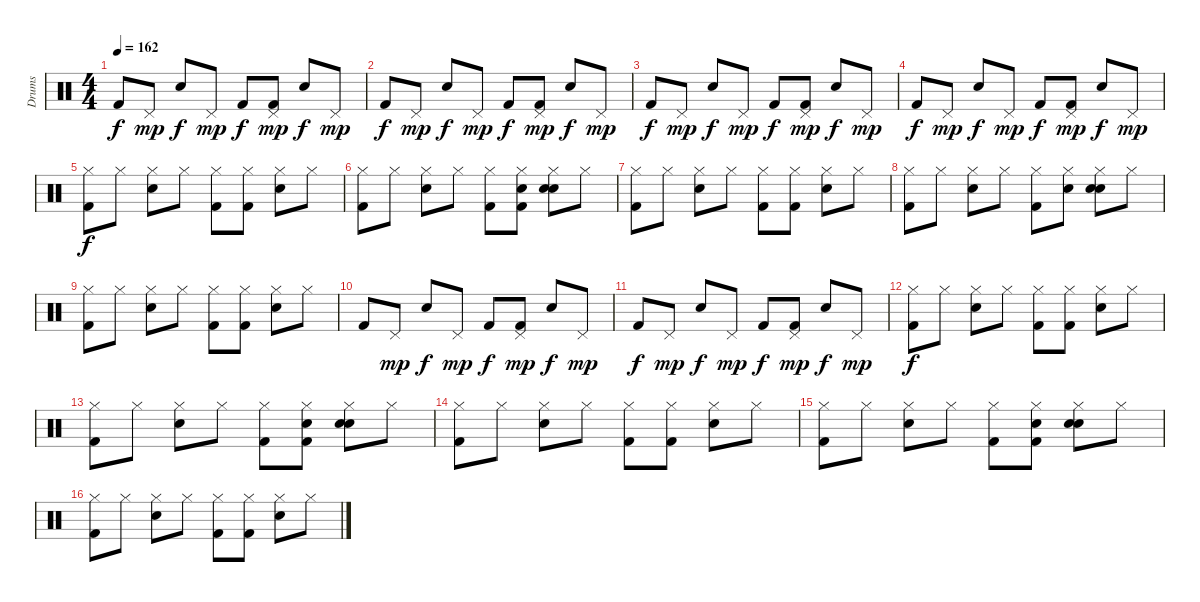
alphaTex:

\track ("Drums" "Drums") {instrument percussion}
\staff {score}
\articulation defaults
\ts (4 4)
\tempo 162
\clef neutral
\ks c "Kick (hit) 2".8{dy f} "Pedal Hi-Hat (hit)".8{dy mp} "Snare (hit) 2".8{dy f} "Pedal Hi-Hat (hit)".8{dy mp} "Kick (hit) 2".8{dy f}
("Pedal Hi-Hat (hit)" "Kick (hit) 2").8{dy mp} "Snare (hit) 2".8{dy f} "Pedal Hi-Hat (hit)".8{dy mp} |
"Kick (hit) 2".8{dy f} "Pedal Hi-Hat (hit)".8{dy mp} "Snare (hit) 2".8{dy f} "Pedal Hi-Hat (hit)".8{dy mp} "Kick (hit) 2".8{dy f} ("Pedal Hi-Hat (hit)" "Kick (hit) 2").8{dy mp} "Snare (hit) 2".8{dy f} "Pedal Hi-Hat (hit)".8{dy mp} |
"Kick (hit) 2".8{dy f} "Pedal Hi-Hat (hit)".8{dy mp} "Snare (hit) 2".8{dy f} "Pedal Hi-Hat (hit)".8{dy mp} "Kick (hit) 2".8{dy f} ("Pedal Hi-Hat (hit)" "Kick (hit) 2").8{dy mp} "Snare (hit) 2".8{dy f} "Pedal Hi-Hat (hit)".8{dy mp} |
"Kick (hit) 2".8{dy f} "Pedal Hi-Hat (hit)".8{dy mp} "Snare (hit) 2".8{dy f} "Pedal Hi-Hat (hit)".8{dy mp} "Kick (hit) 2".8{dy f} ("Pedal Hi-Hat (hit)" "Kick (hit) 2").8{dy mp} "Snare (hit) 2".8{dy f} "Pedal Hi-Hat (hit)".8{dy mp} |
("Hi-Hat (closed)" "Kick (hit) 2").8{dy f} "Hi-Hat (closed)".8 ("Hi-Hat (closed)" "Snare (hit) 2").8 "Hi-Hat (closed)".8 ("Hi-Hat (closed)" "Kick (hit) 2").8 ("Hi-Hat (closed)" "Kick (hit) 2").8 ("Hi-Hat (closed)" "Snare (hit) 2").8 "Hi-Hat (closed)".8 |
("Hi-Hat (closed)" "Kick (hit) 2").8 "Hi-Hat (closed)".8 ("Hi-Hat (closed)" "Snare (hit) 2").8 "Hi-Hat (closed)".8 ("Hi-Hat (closed)" "Kick (hit) 2").8 ("Hi-Hat (closed)" "Hand Clap (hit)" "Kick (hit) 2").8 ("Hi-Hat (closed)" "Snare (hit) 2" "Hand Clap (hit)").8 "Hi-Hat (closed)".8 |
("Hi-Hat (closed)" "Kick (hit) 2").8 "Hi-Hat (closed)".8 ("Hi-Hat (closed)" "Snare (hit) 2").8 "Hi-Hat (closed)".8 ("Hi-Hat (closed)" "Kick (hit) 2").8 ("Hi-Hat (closed)" "Kick (hit) 2").8 ("Hi-Hat (closed)" "Snare (hit) 2").8 "Hi-Hat (closed)".8 |
("Hi-Hat (closed)" "Kick (hit) 2").8 "Hi-Hat (closed)".8 ("Hi-Hat (closed)" "Snare (hit) 2").8 "Hi-Hat (closed)".8 ("Hi-Hat (closed)" "Kick (hit) 2").8 ("Hi-Hat (closed)" "Hand Clap (hit)").8 ("Hi-Hat (closed)" "Snare (hit) 2" "Hand Clap (hit)").8 "Hi-Hat (closed)".8 |
("Hi-Hat (closed)" "Kick (hit) 2").8 "Hi-Hat (closed)".8 ("Hi-Hat (closed)" "Snare (hit) 2").8 "Hi-Hat (closed)".8 ("Hi-Hat (closed)" "Kick (hit) 2").8 ("Hi-Hat (closed)" "Kick (hit) 2").8 ("Hi-Hat (closed)" "Snare (hit) 2").8 "Hi-Hat (closed)".8 |
"Kick (hit) 2".8 "Pedal Hi-Hat (hit)".8{dy mp} "Snare (hit) 2".8{dy f} "Pedal Hi-Hat (hit)".8{dy mp} "Kick (hit) 2".8{dy f} ("Pedal Hi-Hat (hit)" "Kick (hit) 2").8{dy mp} "Snare (hit) 2".8{dy f} "Pedal Hi-Hat (hit)".8{dy mp} |
"Kick (hit) 2".8{dy f} "Pedal Hi-Hat (hit)".8{dy mp} "Snare (hit) 2".8{dy f} "Pedal Hi-Hat (hit)".8{dy mp} "Kick (hit) 2".8{dy f} ("Pedal Hi-Hat (hit)" "Kick (hit) 2").8{dy mp} "Snare (hit) 2".8{dy f} "Pedal Hi-Hat (hit)".8{dy mp} |
("Hi-Hat (closed)" "Kick (hit) 2").8{dy f} "Hi-Hat (closed)".8 ("Hi-Hat (closed)" "Snare (hit) 2").8 "Hi-Hat (closed)".8 ("Hi-Hat (closed)" "Kick (hit) 2").8 ("Hi-Hat (closed)" "Kick (hit) 2").8 ("Hi-Hat (closed)" "Snare (hit) 2").8 "Hi-Hat (closed)".8 |
("Hi-Hat (closed)" "Kick (hit) 2").8 "Hi-Hat (closed)".8 ("Hi-Hat (closed)" "Snare (hit) 2").8 "Hi-Hat (closed)".8 ("Hi-Hat (closed)" "Kick (hit) 2").8 ("Hi-Hat (closed)" "Hand Clap (hit)" "Kick (hit) 2").8 ("Hi-Hat (closed)" "Snare (hit) 2" "Hand Clap (hit)").8 "Hi-Hat (closed)".8 |
("Hi-Hat (closed)" "Kick (hit) 2").8 "Hi-Hat (closed)".8 ("Hi-Hat (closed)" "Snare (hit) 2").8 "Hi-Hat (closed)".8 ("Hi-Hat (closed)" "Kick (hit) 2").8 ("Hi-Hat (closed)" "Kick (hit) 2").8 ("Hi-Hat (closed)" "Snare (hit) 2").8 "Hi-Hat (closed)".8 |
("Hi-Hat (closed)" "Kick (hit) 2").8 "Hi-Hat (closed)".8 ("Hi-Hat (closed)" "Snare (hit) 2").8 "Hi-Hat (closed)".8 ("Hi-Hat (closed)" "Kick (hit) 2").8 ("Hi-Hat (closed)" "Hand Clap (hit)" "Kick (hit) 2").8 ("Hi-Hat (closed)" "Snare (hit) 2" "Hand Clap (hit)").8 "Hi-Hat (closed)".8 |
("Hi-Hat (closed)" "Kick (hit) 2").8 "Hi-Hat (closed)".8 ("Hi-Hat (closed)" "Snare (hit) 2").8 "Hi-Hat (closed)".8 ("Hi-Hat (closed)" "Kick (hit) 2").8 ("Hi-Hat (closed)" "Kick (hit) 2").8 ("Hi-Hat (closed)" "Snare (hit) 2").8 "Hi-Hat (closed)".8
